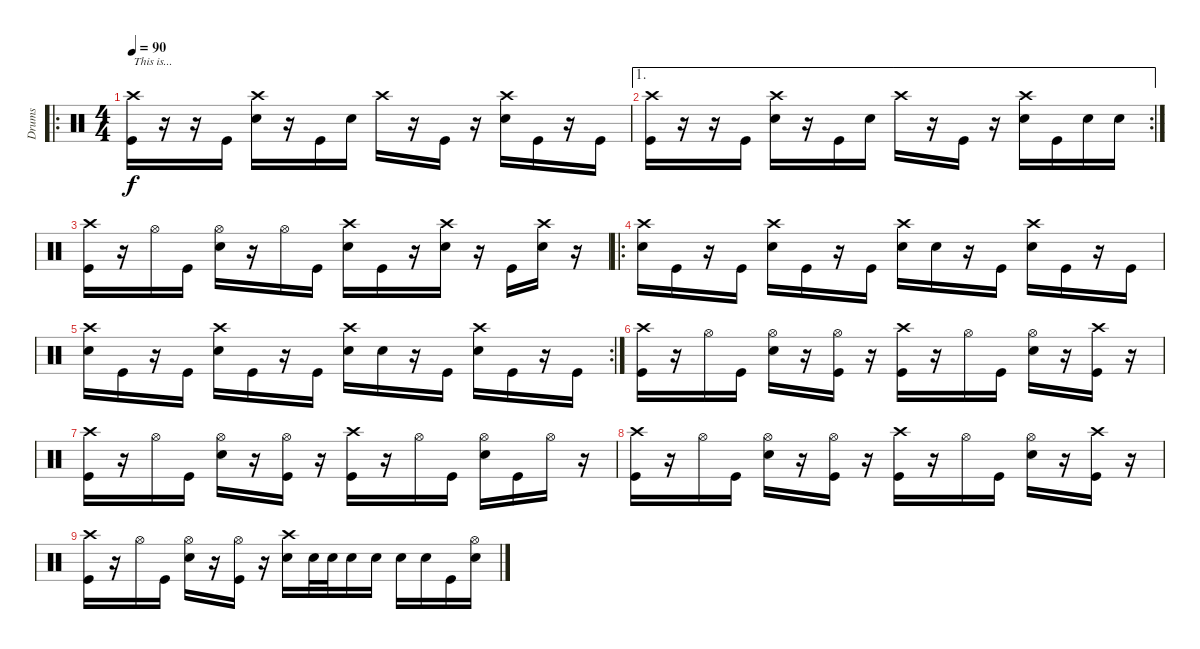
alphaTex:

\track ("Drums" "Drums") {instrument percussion}
\staff {score}
\articulation defaults
\ro
\ts (4 4)
\tempo 90
\clef neutral
\ks c
("Crash high (hit)" "Kick (hit)").16{txt "This is..." dy f} r.16 r.16 "Kick (hit)".16 ("Crash high (hit)" "Snare (hit) 2").16 r.16 "Kick (hit)".16 "Snare (hit) 2".16 "Crash high (hit)".16 r.16 "Kick (hit)".16 r.16 ("Crash high (hit)" "Snare (hit) 2").16 "Kick (hit)".16 r.16 "Kick (hit)".16 |
\ae 1
\rc 2
("Crash high (hit)" "Kick (hit)").16 r.16 r.16 "Kick (hit)".16 ("Crash high (hit)" "Snare (hit) 2").16 r.16 "Kick (hit)".16 "Snare (hit) 2".16 "Crash high (hit)".16 r.16 "Kick (hit)".16 r.16 ("Crash high (hit)" "Snare (hit) 2").16 "Kick (hit)".16 "Snare (hit) 2".16 "Snare (hit) 2".16 |
("Crash high (hit)" "Kick (hit)").16 r.16 "Hi-Hat (open)".16 "Kick (hit)".16 ("Hi-Hat (open)" "Snare (hit) 2").16 r.16 "Hi-Hat (open)".16 "Kick (hit)".16 ("Crash high (hit)" "Snare (hit) 2").16 "Kick (hit)".16 r.16 ("Crash high (hit)" "Snare (hit) 2").16 r.16 "Kick (hit)".16 ("Crash high (hit)" "Snare (hit) 2").16 r.16 |
\ro
("Crash high (hit)" "Snare (hit) 2").16 "Kick (hit)".16 r.16 "Kick (hit)".16 ("Crash high (hit)" "Snare (hit) 2").16 "Kick (hit)".16 r.16 "Kick (hit)".16 ("Crash high (hit)" "Snare (hit) 2").16 "Snare (hit) 2".16 r.16 "Kick (hit)".16 ("Crash high (hit)" "Snare (hit) 2").16 "Kick (hit)".16 r.16 "Kick (hit)".16 |
\rc 2
("Crash high (hit)" "Snare (hit) 2").16 "Kick (hit)".16 r.16 "Kick (hit)".16 ("Crash high (hit)" "Snare (hit) 2").16 "Kick (hit)".16 r.16 "Kick (hit)".16 ("Crash high (hit)" "Snare (hit) 2").16 "Snare (hit) 2".16 r.16 "Kick (hit)".16 ("Crash high (hit)" "Snare (hit) 2").16 "Kick (hit)".16 r.16 "Kick (hit)".16 |
("Crash high (hit)" "Kick (hit)").16 r.16 "Hi-Hat (open)".16 "Kick (hit)".16 ("Hi-Hat (open)" "Snare (hit) 2").16 r.16 ("Hi-Hat (open)" "Kick (hit)").16 r.16 ("Crash high (hit)" "Kick (hit)").16 r.16 "Hi-Hat (open)".16 "Kick (hit)".16 ("Hi-Hat (open)" "Snare (hit) 2").16 r.16 ("Crash high (hit)" "Kick (hit)").16 r.16 |
("Crash high (hit)" "Kick (hit)").16 r.16 "Hi-Hat (open)".16 "Kick (hit)".16 ("Hi-Hat (open)" "Snare (hit) 2").16 r.16 ("Hi-Hat (open)" "Kick (hit)").16 r.16 ("Crash high (hit)" "Kick (hit)").16 r.16 "Hi-Hat (open)".16 "Kick (hit)".16 ("Hi-Hat (open)" "Snare (hit) 2").16 "Kick (hit)".16 "Hi-Hat (open)".16 r.16 |
("Crash high (hit)" "Kick (hit)").16 r.16 "Hi-Hat (open)".16 "Kick (hit)".16 ("Hi-Hat (open)" "Snare (hit) 2").16 r.16 ("Hi-Hat (open)" "Kick (hit)").16 r.16 ("Crash high (hit)" "Kick (hit)").16 r.16 "Hi-Hat (open)".16 "Kick (hit)".16 ("Hi-Hat (open)" "Snare (hit) 2").16 r.16 ("Crash high (hit)" "Kick (hit)").16 r.16 |
("Crash high (hit)" "Kick (hit)").16 r.16 "Hi-Hat (open)".16 "Kick (hit)".16 ("Hi-Hat (open)" "Snare (hit) 2").16 r.16 ("Hi-Hat (open)" "Kick (hit)").16 r.16 ("Crash high (hit)" "Snare (hit) 2").16 "Snare (hit) 2".32 "Snare (hit) 2".32 "Snare (hit) 2".16 "Snare (hit) 2".16 "Snare (hit) 2".16 "Snare (hit) 2".16 "Kick (hit)".16 ("Hi-Hat (open)" "Snare (hit) 2").16
